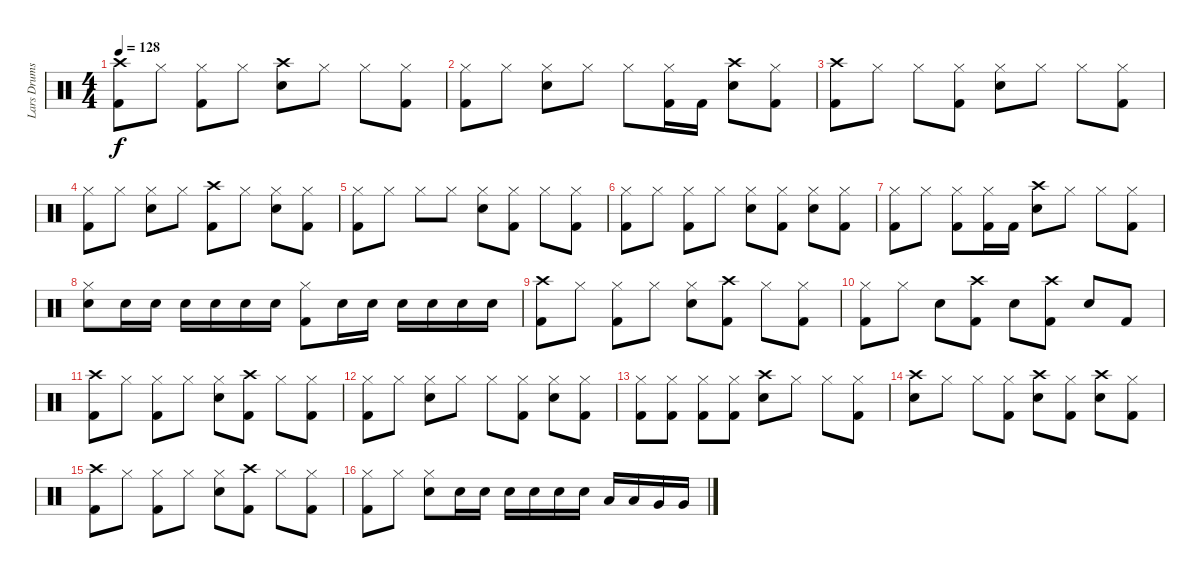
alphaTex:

\track ("Lars Drums" "Lars Drums") {instrument percussion}
\staff {score}
\articulation defaults
\ts (4 4)
\tempo 128
\clef neutral
\ks c
("Crash high (hit)" "Kick (hit) 2").8{dy f} "Hi-Hat (closed)".8 ("Hi-Hat (closed)" "Kick (hit) 2").8 "Hi-Hat (closed)".8 ("Crash high (hit)" "Electric Snare (hit)").8 "Hi-Hat (closed)".8 "Hi-Hat (closed)".8 ("Hi-Hat (closed)" "Kick (hit) 2").8 |
("Hi-Hat (closed)" "Kick (hit) 2").8 "Hi-Hat (closed)".8 ("Hi-Hat (closed)" "Electric Snare (hit)").8 "Hi-Hat (closed)".8 "Hi-Hat (closed)".8 ("Hi-Hat (closed)" "Kick (hit) 2").16 "Kick (hit) 2".16 ("Crash high (hit)" "Electric Snare (hit)").8 ("Hi-Hat (closed)" "Kick (hit) 2").8 |
("Crash high (hit)" "Kick (hit) 2").8 "Hi-Hat (closed)".8 "Hi-Hat (closed)".8 ("Hi-Hat (closed)" "Kick (hit) 2").8 ("Hi-Hat (closed)" "Electric Snare (hit)").8 "Hi-Hat (closed)".8 "Hi-Hat (closed)".8 ("Hi-Hat (closed)" "Kick (hit) 2").8 |
("Hi-Hat (closed)" "Kick (hit) 2").8 "Hi-Hat (closed)".8 ("Hi-Hat (closed)" "Electric Snare (hit)").8 "Hi-Hat (closed)".8 ("Crash high (hit)" "Kick (hit) 2").8 "Hi-Hat (closed)".8 ("Hi-Hat (closed)" "Electric Snare (hit)").8 ("Hi-Hat (closed)" "Kick (hit) 2").8 |
("Hi-Hat (closed)" "Kick (hit) 2").8 "Hi-Hat (closed)".8 "Hi-Hat (closed)".8 "Hi-Hat (closed)".8 ("Hi-Hat (closed)" "Electric Snare (hit)").8 ("Hi-Hat (closed)" "Kick (hit) 2").8 "Hi-Hat (closed)".8 ("Hi-Hat (closed)" "Kick (hit) 2").8 |
("Hi-Hat (closed)" "Kick (hit) 2").8 "Hi-Hat (closed)".8 ("Hi-Hat (closed)" "Kick (hit) 2").8 "Hi-Hat (closed)".8 ("Hi-Hat (closed)" "Electric Snare (hit)").8 ("Hi-Hat (closed)" "Kick (hit) 2").8 ("Hi-Hat (closed)" "Electric Snare (hit)").8 ("Hi-Hat (closed)" "Kick (hit) 2").8 |
("Hi-Hat (closed)" "Kick (hit) 2").8 "Hi-Hat (closed)".8 ("Hi-Hat (closed)" "Kick (hit) 2").8 ("Hi-Hat (closed)" "Kick (hit) 2").16 "Kick (hit) 2".16 ("Crash high (hit)" "Electric Snare (hit)").8 "Hi-Hat (closed)".8 "Hi-Hat (closed)".8 ("Hi-Hat (closed)" "Kick (hit) 2").8 |
("Hi-Hat (closed)" "Electric Snare (hit)").8 "Electric Snare (hit)".16 "Electric Snare (hit)".16 "Electric Snare (hit)".16 "Electric Snare (hit)".16 "Electric Snare (hit)".16 "Electric Snare (hit)".16 ("Hi-Hat (closed)" "Kick (hit) 2").8 "Electric Snare (hit)".16 "Electric Snare (hit)".16 "Electric Snare (hit)".16 "Electric Snare (hit)".16 "Electric Snare (hit)".16 "Electric Snare (hit)".16 |
("Crash high (hit)" "Kick (hit) 2").8 "Hi-Hat (closed)".8 ("Hi-Hat (closed)" "Kick (hit) 2").8 "Hi-Hat (closed)".8 ("Hi-Hat (closed)" "Electric Snare (hit)").8 ("Crash high (hit)" "Kick (hit) 2").8 "Hi-Hat (closed)".8 ("Hi-Hat (closed)" "Kick (hit) 2").8 |
("Hi-Hat (closed)" "Kick (hit) 2").8 "Hi-Hat (closed)".8 "Electric Snare (hit)".8 ("Crash high (hit)" "Kick (hit) 2").8 "Electric Snare (hit)".8 ("Crash high (hit)" "Kick (hit) 2").8 "Electric Snare (hit)".8 "Kick (hit) 2".8 |
("Crash high (hit)" "Kick (hit) 2").8 "Hi-Hat (closed)".8 ("Hi-Hat (closed)" "Kick (hit) 2").8 "Hi-Hat (closed)".8 ("Hi-Hat (closed)" "Electric Snare (hit)").8 ("Crash high (hit)" "Kick (hit) 2").8 "Hi-Hat (closed)".8 ("Hi-Hat (closed)" "Kick (hit) 2").8 |
("Hi-Hat (closed)" "Kick (hit) 2").8 "Hi-Hat (closed)".8 ("Hi-Hat (closed)" "Electric Snare (hit)").8 "Hi-Hat (closed)".8 "Hi-Hat (closed)".8 ("Hi-Hat (closed)" "Kick (hit) 2").8 ("Hi-Hat (closed)" "Electric Snare (hit)").8 ("Hi-Hat (closed)" "Kick (hit) 2").8 |
("Hi-Hat (closed)" "Kick (hit) 2").8 ("Hi-Hat (closed)" "Kick (hit) 2").8 ("Hi-Hat (closed)" "Kick (hit) 2").8 ("Hi-Hat (closed)" "Kick (hit) 2").8 ("Crash high (hit)" "Electric Snare (hit)").8 "Hi-Hat (closed)".8 "Hi-Hat (closed)".8 ("Hi-Hat (closed)" "Kick (hit) 2").8 |
("Crash high (hit)" "Electric Snare (hit)").8 "Hi-Hat (closed)".8 "Hi-Hat (closed)".8 ("Hi-Hat (closed)" "Kick (hit) 2").8 ("Crash high (hit)" "Electric Snare (hit)").8 ("Hi-Hat (closed)" "Kick (hit) 2").8 ("Crash high (hit)" "Electric Snare (hit)").8 ("Hi-Hat (closed)" "Kick (hit) 2").8 |
("Crash high (hit)" "Kick (hit) 2").8 "Hi-Hat (closed)".8 ("Hi-Hat (closed)" "Kick (hit) 2").8 "Hi-Hat (closed)".8 ("Hi-Hat (closed)" "Electric Snare (hit)").8 ("Crash high (hit)" "Kick (hit) 2").8 "Hi-Hat (closed)".8 ("Hi-Hat (closed)" "Kick (hit) 2").8 |
("Hi-Hat (closed)" "Kick (hit) 2").8 "Hi-Hat (closed)".8 ("Hi-Hat (closed)" "Electric Snare (hit)").8 "Electric Snare (hit)".16 "Electric Snare (hit)".16 "Electric Snare (hit)".16 "Electric Snare (hit)".16 "Electric Snare (hit)".16 "Electric Snare (hit)".16 "Low Floor Tom (hit)".16 "Low Floor Tom (hit)".16 "Very Low Tom (hit)".16 "Very Low Tom (hit)".16
